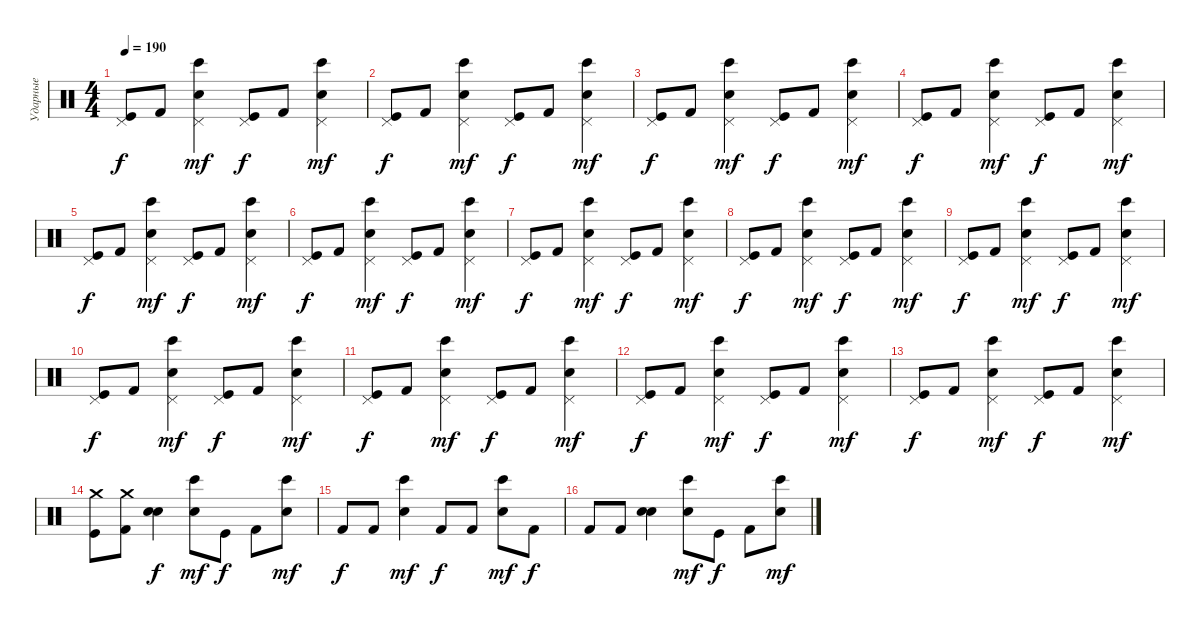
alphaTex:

\track ("Ударные" "Ударные") {instrument percussion}
\staff {score}
\articulation defaults
\ts (4 4)
\tempo 190
\clef neutral
\ks c
("Pedal Hi-Hat (hit)" "Kick (hit)").8{dy f} "Kick (hit) 2".8 ("Pedal Hi-Hat (hit)" "Electric Snare (hit)" "Bongo High (hit)").4{dy mf} ("Pedal Hi-Hat (hit)" "Kick (hit)").8{dy f} "Kick (hit) 2".8 ("Pedal Hi-Hat (hit)" "Electric Snare (hit)" "Bongo High (hit)").4{dy mf} |
("Pedal Hi-Hat (hit)" "Kick (hit)").8{dy f} "Kick (hit) 2".8 ("Pedal Hi-Hat (hit)" "Electric Snare (hit)" "Bongo High (hit)").4{dy mf} ("Pedal Hi-Hat (hit)" "Kick (hit)").8{dy f} "Kick (hit) 2".8 ("Pedal Hi-Hat (hit)" "Electric Snare (hit)" "Bongo High (hit)").4{dy mf} |
("Pedal Hi-Hat (hit)" "Kick (hit)").8{dy f} "Kick (hit) 2".8 ("Pedal Hi-Hat (hit)" "Electric Snare (hit)" "Bongo High (hit)").4{dy mf} ("Pedal Hi-Hat (hit)" "Kick (hit)").8{dy f} "Kick (hit) 2".8 ("Pedal Hi-Hat (hit)" "Electric Snare (hit)" "Bongo High (hit)").4{dy mf} |
("Pedal Hi-Hat (hit)" "Kick (hit)").8{dy f} "Kick (hit) 2".8 ("Pedal Hi-Hat (hit)" "Electric Snare (hit)" "Bongo High (hit)").4{dy mf} ("Pedal Hi-Hat (hit)" "Kick (hit)").8{dy f} "Kick (hit) 2".8 ("Pedal Hi-Hat (hit)" "Electric Snare (hit)" "Bongo High (hit)").4{dy mf} |
("Pedal Hi-Hat (hit)" "Kick (hit)").8{dy f} "Kick (hit) 2".8 ("Pedal Hi-Hat (hit)" "Electric Snare (hit)" "Bongo High (hit)").4{dy mf} ("Pedal Hi-Hat (hit)" "Kick (hit)").8{dy f} "Kick (hit) 2".8 ("Pedal Hi-Hat (hit)" "Electric Snare (hit)" "Bongo High (hit)").4{dy mf} |
("Pedal Hi-Hat (hit)" "Kick (hit)").8{dy f} "Kick (hit) 2".8 ("Pedal Hi-Hat (hit)" "Electric Snare (hit)" "Bongo High (hit)").4{dy mf} ("Pedal Hi-Hat (hit)" "Kick (hit)").8{dy f} "Kick (hit) 2".8 ("Pedal Hi-Hat (hit)" "Electric Snare (hit)" "Bongo High (hit)").4{dy mf} |
("Pedal Hi-Hat (hit)" "Kick (hit)").8{dy f} "Kick (hit) 2".8 ("Pedal Hi-Hat (hit)" "Electric Snare (hit)" "Bongo High (hit)").4{dy mf} ("Pedal Hi-Hat (hit)" "Kick (hit)").8{dy f} "Kick (hit) 2".8 ("Pedal Hi-Hat (hit)" "Electric Snare (hit)" "Bongo High (hit)").4{dy mf} |
("Pedal Hi-Hat (hit)" "Kick (hit)").8{dy f} "Kick (hit) 2".8 ("Pedal Hi-Hat (hit)" "Electric Snare (hit)" "Bongo High (hit)").4{dy mf} ("Pedal Hi-Hat (hit)" "Kick (hit)").8{dy f} "Kick (hit) 2".8 ("Pedal Hi-Hat (hit)" "Electric Snare (hit)" "Bongo High (hit)").4{dy mf} |
("Pedal Hi-Hat (hit)" "Kick (hit)").8{dy f} "Kick (hit) 2".8 ("Pedal Hi-Hat (hit)" "Electric Snare (hit)" "Bongo High (hit)").4{dy mf} ("Pedal Hi-Hat (hit)" "Kick (hit)").8{dy f} "Kick (hit) 2".8 ("Pedal Hi-Hat (hit)" "Electric Snare (hit)" "Bongo High (hit)").4{dy mf} |
("Pedal Hi-Hat (hit)" "Kick (hit)").8{dy f} "Kick (hit) 2".8 ("Pedal Hi-Hat (hit)" "Electric Snare (hit)" "Bongo High (hit)").4{dy mf} ("Pedal Hi-Hat (hit)" "Kick (hit)").8{dy f} "Kick (hit) 2".8 ("Pedal Hi-Hat (hit)" "Electric Snare (hit)" "Bongo High (hit)").4{dy mf} |
("Pedal Hi-Hat (hit)" "Kick (hit)").8{dy f} "Kick (hit) 2".8 ("Pedal Hi-Hat (hit)" "Electric Snare (hit)" "Bongo High (hit)").4{dy mf} ("Pedal Hi-Hat (hit)" "Kick (hit)").8{dy f} "Kick (hit) 2".8 ("Pedal Hi-Hat (hit)" "Electric Snare (hit)" "Bongo High (hit)").4{dy mf} |
("Pedal Hi-Hat (hit)" "Kick (hit)").8{dy f} "Kick (hit) 2".8 ("Pedal Hi-Hat (hit)" "Electric Snare (hit)" "Bongo High (hit)").4{dy mf} ("Pedal Hi-Hat (hit)" "Kick (hit)").8{dy f} "Kick (hit) 2".8 ("Pedal Hi-Hat (hit)" "Electric Snare (hit)" "Bongo High (hit)").4{dy mf} |
("Pedal Hi-Hat (hit)" "Kick (hit)").8{dy f} "Kick (hit) 2".8 ("Pedal Hi-Hat (hit)" "Electric Snare (hit)" "Bongo High (hit)").4{dy mf} ("Pedal Hi-Hat (hit)" "Kick (hit)").8{dy f} "Kick (hit) 2".8 ("Pedal Hi-Hat (hit)" "Electric Snare (hit)" "Bongo High (hit)").4{dy mf} |
("Crash medium (hit)" "Kick (hit)").8 ("Crash medium (hit)" "Kick (hit) 2").8 ("Electric Snare (hit)" "Snare (hit) 2").4{dy f} ("Electric Snare (hit)" "Bongo High (hit)").8{dy mf} "Kick (hit)".8{dy f} "Kick (hit) 2".8 ("Electric Snare (hit)" "Bongo High (hit)").8{dy mf} |
"Kick (hit) 2".8{dy f} "Kick (hit) 2".8 ("Electric Snare (hit)" "Bongo High (hit)").4{dy mf} "Kick (hit) 2".8{dy f} "Kick (hit) 2".8 ("Electric Snare (hit)" "Bongo High (hit)").8{dy mf} "Kick (hit) 2".8{dy f} |
"Kick (hit) 2".8 "Kick (hit) 2".8 ("Electric Snare (hit)" "Snare (hit) 2").4 ("Electric Snare (hit)" "Bongo High (hit)").8{dy mf} "Kick (hit)".8{dy f} "Kick (hit) 2".8 ("Electric Snare (hit)" "Bongo High (hit)").8{dy mf}
